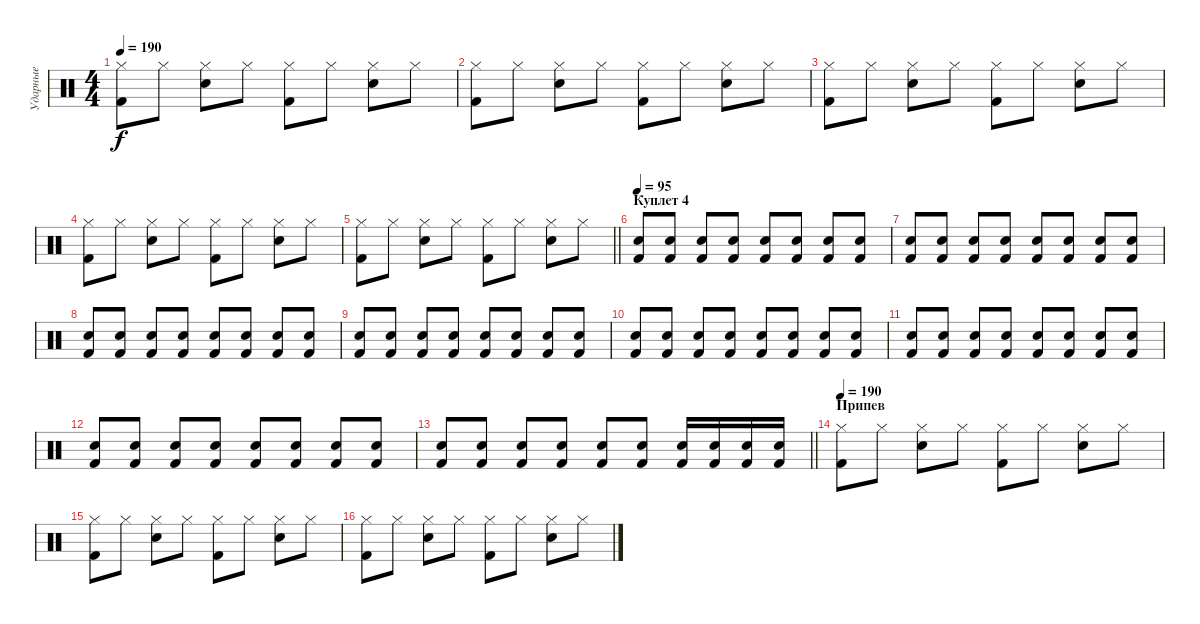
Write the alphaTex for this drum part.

\track ("Ударные" "Ударные") {instrument percussion}
\staff {score}
\articulation defaults
\ts (4 4)
\tempo 190
\clef neutral
\ks c
("Hi-Hat (closed)" "Kick (hit) 2").8{dy f} "Hi-Hat (closed)".8 ("Hi-Hat (closed)" "Snare (hit) 2").8 "Hi-Hat (closed)".8 ("Hi-Hat (closed)" "Kick (hit) 2").8 "Hi-Hat (closed)".8 ("Hi-Hat (closed)" "Snare (hit) 2").8 "Hi-Hat (closed)".8 |
("Hi-Hat (closed)" "Kick (hit) 2").8 "Hi-Hat (closed)".8 ("Hi-Hat (closed)" "Snare (hit) 2").8 "Hi-Hat (closed)".8 ("Hi-Hat (closed)" "Kick (hit) 2").8 "Hi-Hat (closed)".8 ("Hi-Hat (closed)" "Snare (hit) 2").8 "Hi-Hat (closed)".8 |
("Hi-Hat (closed)" "Kick (hit) 2").8 "Hi-Hat (closed)".8 ("Hi-Hat (closed)" "Snare (hit) 2").8 "Hi-Hat (closed)".8 ("Hi-Hat (closed)" "Kick (hit) 2").8 "Hi-Hat (closed)".8 ("Hi-Hat (closed)" "Snare (hit) 2").8 "Hi-Hat (closed)".8 |
("Hi-Hat (closed)" "Kick (hit) 2").8 "Hi-Hat (closed)".8 ("Hi-Hat (closed)" "Snare (hit) 2").8 "Hi-Hat (closed)".8 ("Hi-Hat (closed)" "Kick (hit) 2").8 "Hi-Hat (closed)".8 ("Hi-Hat (closed)" "Snare (hit) 2").8 "Hi-Hat (closed)".8 |
\barLineRight lightlight
("Hi-Hat (closed)" "Kick (hit) 2").8 "Hi-Hat (closed)".8 ("Hi-Hat (closed)" "Snare (hit) 2").8 "Hi-Hat (closed)".8 ("Hi-Hat (closed)" "Kick (hit) 2").8 "Hi-Hat (closed)".8 ("Hi-Hat (closed)" "Snare (hit) 2").8 "Hi-Hat (closed)".8 |
\section ("" "Куплет 4")
\tempo 95
("Snare (hit) 2" "Kick (hit) 2").8 ("Snare (hit) 2" "Kick (hit) 2").8 ("Snare (hit) 2" "Kick (hit) 2").8 ("Snare (hit) 2" "Kick (hit) 2").8 ("Snare (hit) 2" "Kick (hit) 2").8 ("Snare (hit) 2" "Kick (hit) 2").8 ("Snare (hit) 2" "Kick (hit) 2").8 ("Snare (hit) 2" "Kick (hit) 2").8 |
("Snare (hit) 2" "Kick (hit) 2").8 ("Snare (hit) 2" "Kick (hit) 2").8 ("Snare (hit) 2" "Kick (hit) 2").8 ("Snare (hit) 2" "Kick (hit) 2").8 ("Snare (hit) 2" "Kick (hit) 2").8 ("Snare (hit) 2" "Kick (hit) 2").8 ("Snare (hit) 2" "Kick (hit) 2").8 ("Snare (hit) 2" "Kick (hit) 2").8 |
("Snare (hit) 2" "Kick (hit) 2").8 ("Snare (hit) 2" "Kick (hit) 2").8 ("Snare (hit) 2" "Kick (hit) 2").8 ("Snare (hit) 2" "Kick (hit) 2").8 ("Snare (hit) 2" "Kick (hit) 2").8 ("Snare (hit) 2" "Kick (hit) 2").8 ("Snare (hit) 2" "Kick (hit) 2").8 ("Snare (hit) 2" "Kick (hit) 2").8 |
("Snare (hit) 2" "Kick (hit) 2").8 ("Snare (hit) 2" "Kick (hit) 2").8 ("Snare (hit) 2" "Kick (hit) 2").8 ("Snare (hit) 2" "Kick (hit) 2").8 ("Snare (hit) 2" "Kick (hit) 2").8 ("Snare (hit) 2" "Kick (hit) 2").8 ("Snare (hit) 2" "Kick (hit) 2").8 ("Snare (hit) 2" "Kick (hit) 2").8 |
("Snare (hit) 2" "Kick (hit) 2").8 ("Snare (hit) 2" "Kick (hit) 2").8 ("Snare (hit) 2" "Kick (hit) 2").8 ("Snare (hit) 2" "Kick (hit) 2").8 ("Snare (hit) 2" "Kick (hit) 2").8 ("Snare (hit) 2" "Kick (hit) 2").8 ("Snare (hit) 2" "Kick (hit) 2").8 ("Snare (hit) 2" "Kick (hit) 2").8 |
("Snare (hit) 2" "Kick (hit) 2").8 ("Snare (hit) 2" "Kick (hit) 2").8 ("Snare (hit) 2" "Kick (hit) 2").8 ("Snare (hit) 2" "Kick (hit) 2").8 ("Snare (hit) 2" "Kick (hit) 2").8 ("Snare (hit) 2" "Kick (hit) 2").8 ("Snare (hit) 2" "Kick (hit) 2").8 ("Snare (hit) 2" "Kick (hit) 2").8 |
("Snare (hit) 2" "Kick (hit) 2").8 ("Snare (hit) 2" "Kick (hit) 2").8 ("Snare (hit) 2" "Kick (hit) 2").8 ("Snare (hit) 2" "Kick (hit) 2").8 ("Snare (hit) 2" "Kick (hit) 2").8 ("Snare (hit) 2" "Kick (hit) 2").8 ("Snare (hit) 2" "Kick (hit) 2").8 ("Snare (hit) 2" "Kick (hit) 2").8 |
\barLineRight lightlight
("Snare (hit) 2" "Kick (hit) 2").8 ("Snare (hit) 2" "Kick (hit) 2").8 ("Snare (hit) 2" "Kick (hit) 2").8 ("Snare (hit) 2" "Kick (hit) 2").8 ("Snare (hit) 2" "Kick (hit) 2").8 ("Snare (hit) 2" "Kick (hit) 2").8 ("Snare (hit) 2" "Kick (hit) 2").16 ("Snare (hit) 2" "Kick (hit) 2").16 ("Snare (hit) 2" "Kick (hit) 2").16 ("Snare (hit) 2" "Kick (hit) 2").16 |
\section ("" "Припев")
\tempo 190
("Hi-Hat (closed)" "Kick (hit) 2").8 "Hi-Hat (closed)".8 ("Hi-Hat (closed)" "Snare (hit) 2").8 "Hi-Hat (closed)".8 ("Hi-Hat (closed)" "Kick (hit) 2").8 "Hi-Hat (closed)".8 ("Hi-Hat (closed)" "Snare (hit) 2").8 "Hi-Hat (closed)".8 |
("Hi-Hat (closed)" "Kick (hit) 2").8 "Hi-Hat (closed)".8 ("Hi-Hat (closed)" "Snare (hit) 2").8 "Hi-Hat (closed)".8 ("Hi-Hat (closed)" "Kick (hit) 2").8 "Hi-Hat (closed)".8 ("Hi-Hat (closed)" "Snare (hit) 2").8 "Hi-Hat (closed)".8 |
("Hi-Hat (closed)" "Kick (hit) 2").8 "Hi-Hat (closed)".8 ("Hi-Hat (closed)" "Snare (hit) 2").8 "Hi-Hat (closed)".8 ("Hi-Hat (closed)" "Kick (hit) 2").8 "Hi-Hat (closed)".8 ("Hi-Hat (closed)" "Snare (hit) 2").8 "Hi-Hat (closed)".8
